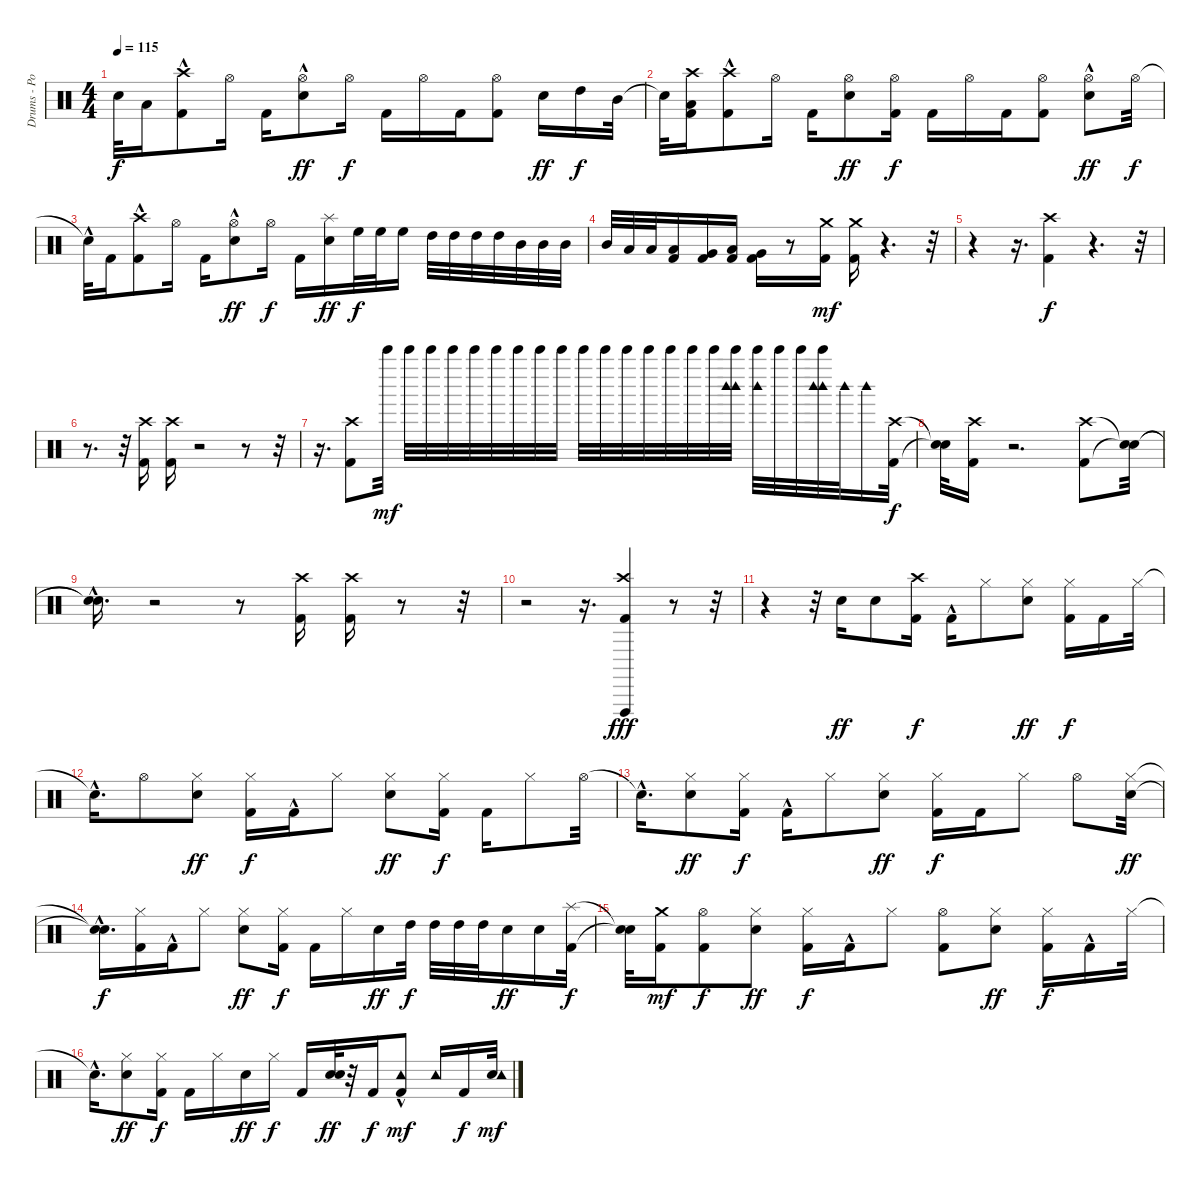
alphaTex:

\track ("Drums - Portnoy" "Drums - Po") {instrument percussion}
\staff {score}
\articulation defaults
\ts (4 4)
\tempo 115
\clef neutral
\ks c "Snare (hit)"{t}.32{dy f} "Low Floor Tom (hit)".16
("Kick (hit) 2"{hac} "Crash high (hit)").8 "Hi-Hat (open)".16 "Kick (hit) 2".16 ("Hi-Hat (open)" "Electric Snare (hit)"{hac}).8{dy ff} "Hi-Hat (open)".16{dy f} "Kick (hit) 2".16 "Hi-Hat (open)".16 "Kick (hit) 2".16 ("Kick (hit) 2" "Hi-Hat (open)").8 "Electric Snare (hit)".16{dy ff} "High Tom (hit)".16{dy f} "Mid Tom (hit)".32 |
"Snare (hit)"{t}.32 ("Low Tom (hit)" "Crash high (hit)" "Kick (hit) 2").16 ("Kick (hit) 2"{hac} "Crash high (hit)").8 "Hi-Hat (open)".16 "Kick (hit) 2".16 ("Hi-Hat (open)" "Electric Snare (hit)").8{dy ff} ("Hi-Hat (open)" "Kick (hit) 2").16{dy f} "Kick (hit) 2".16 "Hi-Hat (open)".16 "Kick (hit) 2".16 ("Kick (hit) 2" "Hi-Hat (open)").8 ("Hi-Hat (open)" "Electric Snare (hit)"{hac}).8{dy ff} "Hi-Hat (open)".32{dy f} |
"Snare (hit)"{hac t}.32 "Kick (hit) 2".16 ("Kick (hit) 2"{hac} "Crash high (hit)").8 "Hi-Hat (open)".16 "Kick (hit) 2".16 ("Hi-Hat (open)" "Electric Snare (hit)"{hac}).8{dy ff} "Hi-Hat (open)".16{dy f} "Kick (hit) 2".16 ("Splash (hit)" "Electric Snare (hit)").16{dy ff} "High Floor Tom (hit)".32{dy f} "High Floor Tom (hit)".32 "High Floor Tom (hit)".16 "High Tom (hit)".32 "High Tom (hit)".32 "High Tom (hit)".32 "High Tom (hit)".32 "Mid Tom (hit)".32 "Mid Tom (hit)".32 "Mid Tom (hit)".32 |
"Mid Tom (hit)".32 "Low Tom (hit)".32 "Low Tom (hit)".32 ("Kick (hit) 2" "Low Floor Tom (hit)").16 ("Kick (hit) 2" "Very Low Tom (hit)").16 ("Kick (hit) 2" "Low Floor Tom (hit)").16 ("Kick (hit) 2" "Very Low Tom (hit)").16 r.8 ("Kick (hit) 2" "Crash medium (hit)").16{dy mf} ("Kick (hit) 2" "Crash medium (hit)").16 r.4{d} r.32 |
r.4 r.16{d} ("Kick (hit) 2" "Crash high (hit)").4{dy f volume 12} r.4{d} r.32 |
r.8{d} r.32 ("Kick (hit) 2" "Crash high (hit)").16 ("Crash high (hit)" "Kick (hit) 2").16 r.2 r.8 r.32 |
r.16{d} ("Crash high (hit)" "Kick (hit) 2").8{volume 12} "Bell Tree (hit)".32{dy mf} "Bell Tree (hit)".32 "Bell Tree (hit)".32 "Bell Tree (hit)".32 "Bell Tree (hit)".32 "Bell Tree (hit)".32 "Bell Tree (hit)".32 "Bell Tree (hit)".32 "Bell Tree (hit)".32 "Bell Tree (hit)".32 "Bell Tree (hit)".32 "Bell Tree (hit)".32 "Bell Tree (hit)".32 "Bell Tree (hit)".32 "Bell Tree (hit)".32 "Bell Tree (hit)".32 ("Woodblock high (hit)" "Bell Tree (hit)" "Woodblock high (hit)").32 ("Bell Tree (hit)" "Woodblock high (hit)").32 "Bell Tree (hit)".32 "Bell Tree (hit)".32 ("Woodblock high (hit)" "Bell Tree (hit)" "Woodblock high (hit)").32 "Woodblock high (hit)".32 "Woodblock high (hit)".16 ("Crash high (hit)" "Kick (hit) 2").32{dy f} |
("Snare (hit)"{t} "Snare (hit)"{t}).32 ("Crash high (hit)" "Kick (hit) 2").16 r.2{d} ("Crash high (hit)" "Kick (hit) 2").8{volume 12} ("Snare (hit)"{t} "Snare (hit)"{t}).32 |
("Snare (hit)"{hac t} "Snare (hit)"{hac t}).16{d} r.2 r.8 ("Crash high (hit)" "Kick (hit) 2").16 ("Crash high (hit)" "Kick (hit) 2").16 r.8 r.32 |
r.2 r.16{d} ("Crash high (hit)" "Kick (hit) 2" "Vibraslap (hit)").4{dy fff volume 12} r.8 r.32 |
r.4 r.32 "Electric Snare (hit)".16{dy ff} "Electric Snare (hit)".8 ("Kick (hit) 2" "Crash high (hit)").16{dy f} "Kick (hit) 2"{hac}.16 "Hi-Hat (closed)".8 ("Hi-Hat (closed)" "Electric Snare (hit)").8{dy ff} ("Kick (hit) 2" "Hi-Hat (closed)").16{dy f} "Kick (hit) 2".16 "Hi-Hat (closed)".32 |
"Snare (hit)"{hac t}.16{d} "Hi-Hat (open)".8 ("Hi-Hat (closed)" "Electric Snare (hit)").8{dy ff} ("Kick (hit) 2" "Hi-Hat (closed)").16{dy f} "Kick (hit) 2"{hac}.16 "Hi-Hat (closed)".8 ("Hi-Hat (closed)" "Electric Snare (hit)").8{dy ff} ("Kick (hit) 2" "Hi-Hat (closed)").16{dy f} "Kick (hit) 2".16 "Hi-Hat (closed)".8 "Hi-Hat (open)".32 |
"Snare (hit)"{hac t}.16{d} ("Hi-Hat (closed)" "Electric Snare (hit)").8{dy ff} ("Kick (hit) 2" "Hi-Hat (closed)").16{dy f} "Kick (hit) 2"{hac}.16 "Hi-Hat (closed)".8 ("Hi-Hat (closed)" "Electric Snare (hit)").8{dy ff} ("Kick (hit) 2" "Hi-Hat (closed)").16{dy f} "Kick (hit) 2".16 "Hi-Hat (closed)".8 "Hi-Hat (open)".8 ("Hi-Hat (closed)" "Electric Snare (hit)").32{dy ff} |
("Snare (hit)"{hac t} "Snare (hit)"{hac t}).16{d dy f} ("Kick (hit) 2" "Hi-Hat (closed)").16 "Kick (hit) 2"{hac}.16 "Hi-Hat (closed)".8 ("Hi-Hat (closed)" "Electric Snare (hit)").8{dy ff} ("Hi-Hat (closed)" "Kick (hit) 2").16{dy f} "Kick (hit) 2".16 "Hi-Hat (closed)".16 "Electric Snare (hit)".16{dy ff} "High Tom (hit)".32{dy f} "High Tom (hit)".32 "High Tom (hit)".32 "High Tom (hit)".32 "Electric Snare (hit)".16{dy ff} "Electric Snare (hit)".16 ("Kick (hit) 2" "Splash (hit)").32{dy f} |
("Snare (hit)"{t} "Snare (hit)"{t}).32 ("Kick (hit) 2" "Crash medium (hit)").16{dy mf} ("Kick (hit) 2" "Hi-Hat (open)").8{dy f} ("Hi-Hat (closed)" "Electric Snare (hit)").8{dy ff} ("Hi-Hat (closed)" "Kick (hit) 2").16{dy f} "Kick (hit) 2"{hac}.16 "Hi-Hat (closed)".8 ("Hi-Hat (open)" "Kick (hit) 2").8 ("Hi-Hat (closed)" "Electric Snare (hit)").8{dy ff} ("Hi-Hat (closed)" "Kick (hit) 2").16{dy f} "Kick (hit) 2"{hac}.16 "Hi-Hat (closed)".32 |
"Snare (hit)"{hac t}.16{d} ("Hi-Hat (closed)" "Electric Snare (hit)").8{dy ff} ("Kick (hit) 2" "Hi-Hat (closed)").16{dy f} "Kick (hit) 2".16 "Hi-Hat (closed)".16 "Electric Snare (hit)".16{dy ff} "Hi-Hat (closed)".16{dy f} "Kick (hit) 2".16 ("Electric Snare (hit)" "Electric Snare (hit)").32{dy ff} r.32 "Kick (hit) 2".16{dy f} ("Kick (hit) 2"{hac} "Tambourine (hit)").8{dy mf} "Tambourine (hit)".16 "Kick (hit) 2".16{dy f} ("Electric Snare (hit)" "Tambourine (hit)").32{dy mf}
